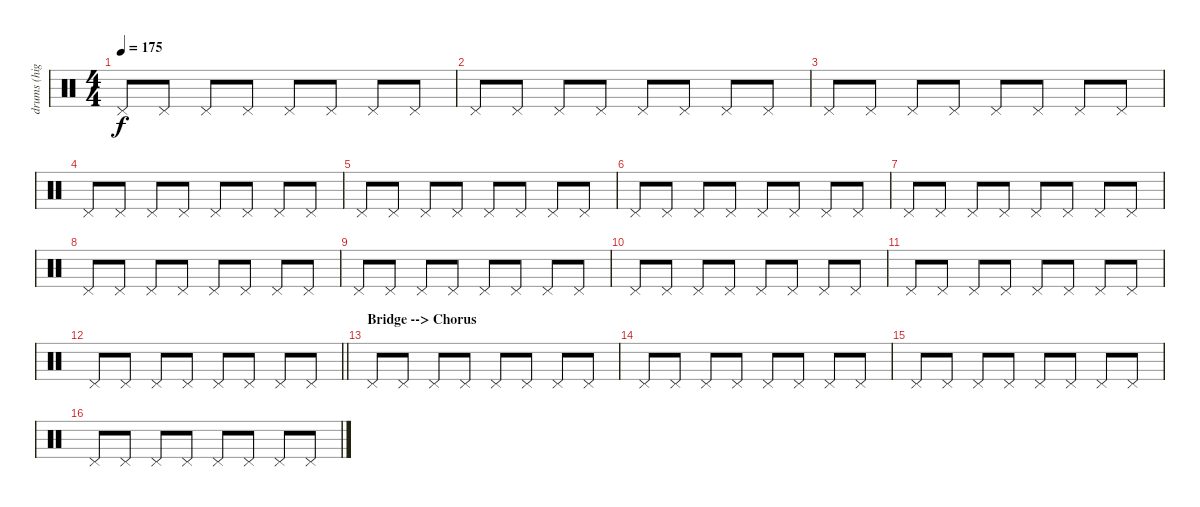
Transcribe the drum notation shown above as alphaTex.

\track ("drums (highhat)" "drums (hig") {instrument percussion}
\staff {score}
\articulation defaults
\ts (4 4)
\tempo 175
\clef neutral
\ks c "Pedal Hi-Hat (hit)".8{dy f} "Pedal Hi-Hat (hit)".8 "Pedal Hi-Hat (hit)".8 "Pedal Hi-Hat (hit)".8 "Pedal Hi-Hat (hit)".8 "Pedal Hi-Hat (hit)".8 "Pedal Hi-Hat (hit)".8 "Pedal Hi-Hat (hit)".8
|
"Pedal Hi-Hat (hit)".8 "Pedal Hi-Hat (hit)".8 "Pedal Hi-Hat (hit)".8 "Pedal Hi-Hat (hit)".8 "Pedal Hi-Hat (hit)".8 "Pedal Hi-Hat (hit)".8 "Pedal Hi-Hat (hit)".8 "Pedal Hi-Hat (hit)".8 |
"Pedal Hi-Hat (hit)".8 "Pedal Hi-Hat (hit)".8 "Pedal Hi-Hat (hit)".8 "Pedal Hi-Hat (hit)".8 "Pedal Hi-Hat (hit)".8 "Pedal Hi-Hat (hit)".8 "Pedal Hi-Hat (hit)".8 "Pedal Hi-Hat (hit)".8 |
"Pedal Hi-Hat (hit)".8 "Pedal Hi-Hat (hit)".8 "Pedal Hi-Hat (hit)".8 "Pedal Hi-Hat (hit)".8 "Pedal Hi-Hat (hit)".8 "Pedal Hi-Hat (hit)".8 "Pedal Hi-Hat (hit)".8 "Pedal Hi-Hat (hit)".8 |
"Pedal Hi-Hat (hit)".8 "Pedal Hi-Hat (hit)".8 "Pedal Hi-Hat (hit)".8 "Pedal Hi-Hat (hit)".8 "Pedal Hi-Hat (hit)".8 "Pedal Hi-Hat (hit)".8 "Pedal Hi-Hat (hit)".8 "Pedal Hi-Hat (hit)".8 |
"Pedal Hi-Hat (hit)".8 "Pedal Hi-Hat (hit)".8 "Pedal Hi-Hat (hit)".8 "Pedal Hi-Hat (hit)".8 "Pedal Hi-Hat (hit)".8 "Pedal Hi-Hat (hit)".8 "Pedal Hi-Hat (hit)".8 "Pedal Hi-Hat (hit)".8 |
"Pedal Hi-Hat (hit)".8 "Pedal Hi-Hat (hit)".8 "Pedal Hi-Hat (hit)".8 "Pedal Hi-Hat (hit)".8 "Pedal Hi-Hat (hit)".8 "Pedal Hi-Hat (hit)".8 "Pedal Hi-Hat (hit)".8 "Pedal Hi-Hat (hit)".8 |
"Pedal Hi-Hat (hit)".8 "Pedal Hi-Hat (hit)".8 "Pedal Hi-Hat (hit)".8 "Pedal Hi-Hat (hit)".8 "Pedal Hi-Hat (hit)".8 "Pedal Hi-Hat (hit)".8 "Pedal Hi-Hat (hit)".8 "Pedal Hi-Hat (hit)".8 |
"Pedal Hi-Hat (hit)".8 "Pedal Hi-Hat (hit)".8 "Pedal Hi-Hat (hit)".8 "Pedal Hi-Hat (hit)".8 "Pedal Hi-Hat (hit)".8 "Pedal Hi-Hat (hit)".8 "Pedal Hi-Hat (hit)".8 "Pedal Hi-Hat (hit)".8 |
"Pedal Hi-Hat (hit)".8 "Pedal Hi-Hat (hit)".8 "Pedal Hi-Hat (hit)".8 "Pedal Hi-Hat (hit)".8 "Pedal Hi-Hat (hit)".8 "Pedal Hi-Hat (hit)".8 "Pedal Hi-Hat (hit)".8 "Pedal Hi-Hat (hit)".8 |
"Pedal Hi-Hat (hit)".8 "Pedal Hi-Hat (hit)".8 "Pedal Hi-Hat (hit)".8 "Pedal Hi-Hat (hit)".8 "Pedal Hi-Hat (hit)".8 "Pedal Hi-Hat (hit)".8 "Pedal Hi-Hat (hit)".8 "Pedal Hi-Hat (hit)".8 |
\barLineRight lightlight "Pedal Hi-Hat (hit)".8 "Pedal Hi-Hat (hit)".8 "Pedal Hi-Hat (hit)".8 "Pedal Hi-Hat (hit)".8 "Pedal Hi-Hat (hit)".8 "Pedal Hi-Hat (hit)".8 "Pedal Hi-Hat (hit)".8 "Pedal Hi-Hat (hit)".8
|
\section ("" "Bridge --> Chorus")
"Pedal Hi-Hat (hit)".8 "Pedal Hi-Hat (hit)".8 "Pedal Hi-Hat (hit)".8 "Pedal Hi-Hat (hit)".8 "Pedal Hi-Hat (hit)".8 "Pedal Hi-Hat (hit)".8 "Pedal Hi-Hat (hit)".8 "Pedal Hi-Hat (hit)".8 |
"Pedal Hi-Hat (hit)".8 "Pedal Hi-Hat (hit)".8 "Pedal Hi-Hat (hit)".8 "Pedal Hi-Hat (hit)".8 "Pedal Hi-Hat (hit)".8 "Pedal Hi-Hat (hit)".8 "Pedal Hi-Hat (hit)".8 "Pedal Hi-Hat (hit)".8 |
"Pedal Hi-Hat (hit)".8 "Pedal Hi-Hat (hit)".8 "Pedal Hi-Hat (hit)".8 "Pedal Hi-Hat (hit)".8 "Pedal Hi-Hat (hit)".8 "Pedal Hi-Hat (hit)".8 "Pedal Hi-Hat (hit)".8 "Pedal Hi-Hat (hit)".8 |
"Pedal Hi-Hat (hit)".8 "Pedal Hi-Hat (hit)".8 "Pedal Hi-Hat (hit)".8 "Pedal Hi-Hat (hit)".8 "Pedal Hi-Hat (hit)".8 "Pedal Hi-Hat (hit)".8 "Pedal Hi-Hat (hit)".8 "Pedal Hi-Hat (hit)".8
